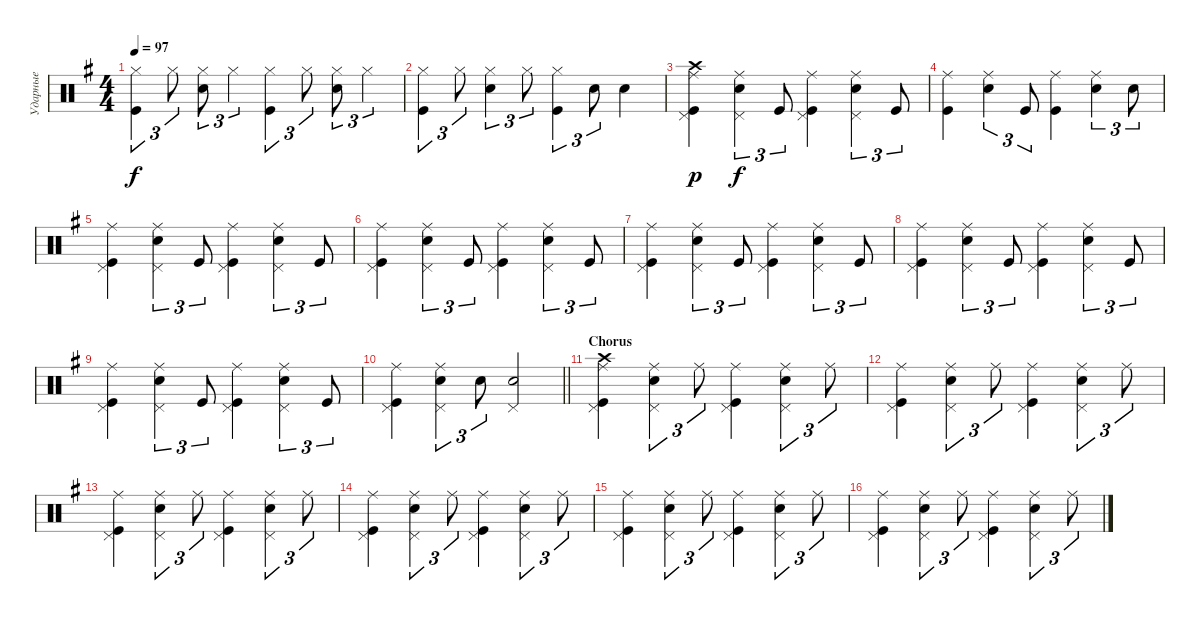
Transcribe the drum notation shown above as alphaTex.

\track ("Ударные" "Ударные") {instrument percussion}
\staff {score}
\articulation defaults
\ts (4 4)
\tempo 97
\clef neutral
\ks eminor
("Hi-Hat (closed)" "Kick (hit)").4{tu (3 2) dy f} "Hi-Hat (closed)".8{tu (3 2)} ("Hi-Hat (closed)" "Snare (hit) 2").8{tu (3 2)} "Hi-Hat (closed)".4{tu (3 2)} ("Hi-Hat (closed)" "Kick (hit)").4{tu (3 2)} "Hi-Hat (closed)".8{tu (3 2)} ("Hi-Hat (closed)" "Snare (hit) 2").8{tu (3 2)} "Hi-Hat (closed)".4{tu (3 2)} |
("Hi-Hat (closed)" "Kick (hit)").4{tu (3 2)} "Hi-Hat (closed)".8{tu (3 2)} ("Hi-Hat (closed)" "Snare (hit) 2").4{tu (3 2)} "Hi-Hat (closed)".8{tu (3 2)} ("Hi-Hat (closed)" "Kick (hit)").4{tu (3 2)} "Snare (hit) 2".8{tu (3 2)} "Snare (hit) 2".4 |
("Kick (hit)" "Pedal Hi-Hat (hit)" "Crash high (hit)" "Ride (middle)").4{dy p} ("Snare (hit) 2" "Ride (middle)" "Pedal Hi-Hat (hit)").4{tu (3 2) dy f} "Kick (hit)".8{tu (3 2)} ("Kick (hit)" "Ride (middle)" "Pedal Hi-Hat (hit)").4 ("Snare (hit) 2" "Ride (middle)" "Pedal Hi-Hat (hit)").4{tu (3 2)} "Kick (hit)".8{tu (3 2)} |
("Kick (hit)" "Ride (middle)").4 ("Snare (hit) 2" "Ride (middle)").4{tu (3 2)} "Kick (hit)".8{tu (3 2)} ("Kick (hit)" "Ride (middle)").4 ("Snare (hit) 2" "Ride (middle)").4{tu (3 2)} "Snare (hit) 2".8{tu (3 2)} |
("Kick (hit)" "Ride (middle)" "Pedal Hi-Hat (hit)").4 ("Snare (hit) 2" "Pedal Hi-Hat (hit)" "Ride (middle)").4{tu (3 2)} "Kick (hit)".8{tu (3 2)} ("Kick (hit)" "Pedal Hi-Hat (hit)" "Ride (middle)").4 ("Snare (hit) 2" "Ride (middle)" "Pedal Hi-Hat (hit)").4{tu (3 2)} "Kick (hit)".8{tu (3 2)} |
("Kick (hit)" "Ride (middle)" "Pedal Hi-Hat (hit)").4 ("Snare (hit) 2" "Pedal Hi-Hat (hit)" "Ride (middle)").4{tu (3 2)} "Kick (hit)".8{tu (3 2)} ("Kick (hit)" "Pedal Hi-Hat (hit)" "Ride (middle)").4 ("Snare (hit) 2" "Ride (middle)" "Pedal Hi-Hat (hit)").4{tu (3 2)} "Kick (hit)".8{tu (3 2)} |
("Kick (hit)" "Ride (middle)" "Pedal Hi-Hat (hit)").4 ("Snare (hit) 2" "Pedal Hi-Hat (hit)" "Ride (middle)").4{tu (3 2)} "Kick (hit)".8{tu (3 2)} ("Kick (hit)" "Pedal Hi-Hat (hit)" "Ride (middle)").4 ("Snare (hit) 2" "Ride (middle)" "Pedal Hi-Hat (hit)").4{tu (3 2)} "Kick (hit)".8{tu (3 2)} |
("Kick (hit)" "Ride (middle)" "Pedal Hi-Hat (hit)").4 ("Snare (hit) 2" "Pedal Hi-Hat (hit)" "Ride (middle)").4{tu (3 2)} "Kick (hit)".8{tu (3 2)} ("Kick (hit)" "Pedal Hi-Hat (hit)" "Ride (middle)").4 ("Snare (hit) 2" "Ride (middle)" "Pedal Hi-Hat (hit)").4{tu (3 2)} "Kick (hit)".8{tu (3 2)} |
("Kick (hit)" "Ride (middle)" "Pedal Hi-Hat (hit)").4 ("Snare (hit) 2" "Pedal Hi-Hat (hit)" "Ride (middle)").4{tu (3 2)} "Kick (hit)".8{tu (3 2)} ("Kick (hit)" "Pedal Hi-Hat (hit)" "Ride (middle)").4 ("Snare (hit) 2" "Ride (middle)" "Pedal Hi-Hat (hit)").4{tu (3 2)} "Kick (hit)".8{tu (3 2)} |
\barLineRight lightlight
("Kick (hit)" "Ride (middle)" "Pedal Hi-Hat (hit)").4 ("Snare (hit) 2" "Ride (middle)" "Pedal Hi-Hat (hit)").4{tu (3 2)} "Snare (hit) 2".8{tu (3 2)} ("Pedal Hi-Hat (hit)" "Snare (hit) 2").2 |
\section ("" "Chorus")
("Kick (hit)" "Ride (middle)" "Pedal Hi-Hat (hit)" "Crash high (hit)").4 ("Snare (hit) 2" "Ride (middle)" "Pedal Hi-Hat (hit)").4{tu (3 2)} "Ride (middle)".8{tu (3 2)} ("Kick (hit)" "Ride (middle)" "Pedal Hi-Hat (hit)").4 ("Snare (hit) 2" "Ride (middle)" "Pedal Hi-Hat (hit)").4{tu (3 2)} "Ride (middle)".8{tu (3 2)} |
("Kick (hit)" "Ride (middle)" "Pedal Hi-Hat (hit)").4 ("Snare (hit) 2" "Ride (middle)" "Pedal Hi-Hat (hit)").4{tu (3 2)} "Ride (middle)".8{tu (3 2)} ("Kick (hit)" "Ride (middle)" "Pedal Hi-Hat (hit)").4 ("Snare (hit) 2" "Ride (middle)" "Pedal Hi-Hat (hit)").4{tu (3 2)} "Ride (middle)".8{tu (3 2)} |
("Kick (hit)" "Ride (middle)" "Pedal Hi-Hat (hit)").4 ("Snare (hit) 2" "Ride (middle)" "Pedal Hi-Hat (hit)").4{tu (3 2)} "Ride (middle)".8{tu (3 2)} ("Kick (hit)" "Ride (middle)" "Pedal Hi-Hat (hit)").4 ("Snare (hit) 2" "Ride (middle)" "Pedal Hi-Hat (hit)").4{tu (3 2)} "Ride (middle)".8{tu (3 2)} |
("Kick (hit)" "Ride (middle)" "Pedal Hi-Hat (hit)").4 ("Snare (hit) 2" "Ride (middle)" "Pedal Hi-Hat (hit)").4{tu (3 2)} "Ride (middle)".8{tu (3 2)} ("Kick (hit)" "Ride (middle)" "Pedal Hi-Hat (hit)").4 ("Snare (hit) 2" "Ride (middle)" "Pedal Hi-Hat (hit)").4{tu (3 2)} "Ride (middle)".8{tu (3 2)} |
("Kick (hit)" "Ride (middle)" "Pedal Hi-Hat (hit)").4 ("Snare (hit) 2" "Ride (middle)" "Pedal Hi-Hat (hit)").4{tu (3 2)} "Ride (middle)".8{tu (3 2)} ("Kick (hit)" "Ride (middle)" "Pedal Hi-Hat (hit)").4 ("Snare (hit) 2" "Ride (middle)" "Pedal Hi-Hat (hit)").4{tu (3 2)} "Ride (middle)".8{tu (3 2)} |
("Kick (hit)" "Ride (middle)" "Pedal Hi-Hat (hit)").4 ("Snare (hit) 2" "Ride (middle)" "Pedal Hi-Hat (hit)").4{tu (3 2)} "Ride (middle)".8{tu (3 2)} ("Kick (hit)" "Ride (middle)" "Pedal Hi-Hat (hit)").4 ("Snare (hit) 2" "Ride (middle)" "Pedal Hi-Hat (hit)").4{tu (3 2)} "Ride (middle)".8{tu (3 2)}
